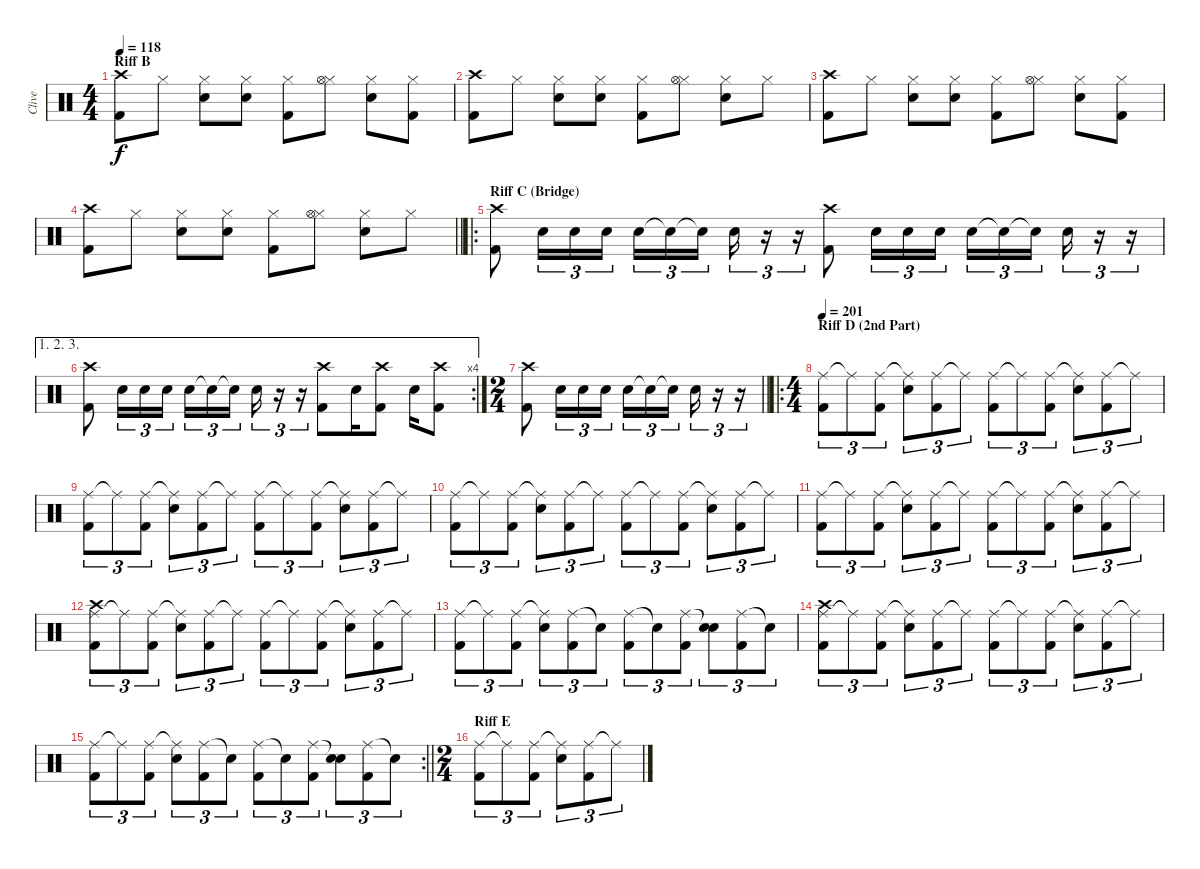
\track ("Clive" "Clive") {instrument percussion}
\staff {score}
\articulation defaults
\ts (4 4)
\section ("" "Riff B")
\tempo 118
\clef neutral
\ks c
("Crash high (hit)" "Kick (hit) 2").8{dy f} "Hi-Hat (closed)".8 ("Hi-Hat (closed)" "Snare (hit) 2").8 ("Hi-Hat (closed)" "Snare (hit) 2").8 ("Hi-Hat (closed)" "Kick (hit) 2").8 ("Hi-Hat (closed)" "Hi-Hat (open)").8 ("Hi-Hat (closed)" "Snare (hit) 2").8 ("Hi-Hat (closed)" "Kick (hit) 2").8 |
("Crash high (hit)" "Kick (hit) 2").8 "Hi-Hat (closed)".8 ("Hi-Hat (closed)" "Snare (hit) 2").8 ("Hi-Hat (closed)" "Snare (hit) 2").8 ("Hi-Hat (closed)" "Kick (hit) 2").8 ("Hi-Hat (closed)" "Hi-Hat (open)").8 ("Hi-Hat (closed)" "Snare (hit) 2").8 "Hi-Hat (closed)".8 |
("Crash high (hit)" "Kick (hit) 2").8 "Hi-Hat (closed)".8 ("Hi-Hat (closed)" "Snare (hit) 2").8 ("Hi-Hat (closed)" "Snare (hit) 2").8 ("Hi-Hat (closed)" "Kick (hit) 2").8 ("Hi-Hat (closed)" "Hi-Hat (open)").8 ("Hi-Hat (closed)" "Snare (hit) 2").8 ("Hi-Hat (closed)" "Kick (hit) 2").8 |
\barLineRight lightlight
("Crash high (hit)" "Kick (hit) 2").8 "Hi-Hat (closed)".8 ("Hi-Hat (closed)" "Snare (hit) 2").8 ("Hi-Hat (closed)" "Snare (hit) 2").8 ("Hi-Hat (closed)" "Kick (hit) 2").8 ("Hi-Hat (closed)" "Hi-Hat (open)").8 ("Hi-Hat (closed)" "Snare (hit) 2").8 "Hi-Hat (closed)".8 |
\ro
\section ("" "Riff C (Bridge)")
("Crash high (hit)" "Kick (hit) 2").8 "Snare (hit) 2".16{tu (3 2)} "Snare (hit) 2".16{tu (3 2)} "Snare (hit) 2".16{tu (3 2)} "Snare (hit) 2".16{tu (3 2)} "Snare (hit)"{t}.16{tu (3 2)} "Snare (hit) 2"{t}.16{tu (3 2) beam splitsecondary} "Snare (hit) 2".16{tu (3 2)} r.16{tu (3 2)} r.16{tu (3 2)} ("Crash high (hit)" "Kick (hit) 2").8 "Snare (hit) 2".16{tu (3 2)} "Snare (hit) 2".16{tu (3 2)} "Snare (hit) 2".16{tu (3 2)} "Snare (hit) 2".16{tu (3 2)} "Snare (hit)"{t}.16{tu (3 2)} "Snare (hit)"{t}.16{tu (3 2) beam splitsecondary} "Snare (hit) 2".16{tu (3 2)} r.16{tu (3 2)} r.16{tu (3 2)} |
\ae (1 2 3)
\rc 4
("Crash high (hit)" "Kick (hit) 2").8 "Snare (hit) 2".16{tu (3 2)} "Snare (hit) 2".16{tu (3 2)} "Snare (hit) 2".16{tu (3 2)} "Snare (hit) 2".16{tu (3 2)} "Snare (hit)"{t}.16{tu (3 2)} "Snare (hit) 2"{t}.16{tu (3 2) beam splitsecondary} "Snare (hit) 2".16{tu (3 2)} r.16{tu (3 2)} r.16{tu (3 2)} ("Crash high (hit)" "Kick (hit) 2").8 "Snare (hit) 2".16 ("Crash high (hit)" "Kick (hit) 2").8 "Snare (hit) 2".16 ("Crash high (hit)" "Kick (hit) 2").8 |
\ts (2 4)
\barLineRight lightlight
("Crash high (hit)" "Kick (hit) 2").8 "Snare (hit) 2".16{tu (3 2)} "Snare (hit) 2".16{tu (3 2)} "Snare (hit) 2".16{tu (3 2)} "Snare (hit) 2".16{tu (3 2)} "Snare (hit)"{t}.16{tu (3 2)} "Snare (hit) 2"{t}.16{tu (3 2) beam splitsecondary} "Snare (hit) 2".16{tu (3 2)} r.16{tu (3 2)} r.16{tu (3 2)} |
\ro
\ts (4 4)
\section ("" "Riff D (2nd Part)")
\tempo 201
("Ride (middle)" "Kick (hit) 2").8{tu (3 2)} "Ride (middle)"{t}.8{tu (3 2)} ("Ride (middle)" "Kick (hit) 2").8{tu (3 2)} ("Ride (middle)"{t} "Snare (hit) 2").8{tu (3 2)} ("Ride (middle)" "Kick (hit) 2").8{tu (3 2)} "Ride (middle)"{t}.8{tu (3 2)} ("Ride (middle)" "Kick (hit) 2").8{tu (3 2)} "Ride (middle)"{t}.8{tu (3 2)} ("Ride (middle)" "Kick (hit) 2").8{tu (3 2)} ("Ride (middle)"{t} "Snare (hit) 2").8{tu (3 2)} ("Ride (middle)" "Kick (hit) 2").8{tu (3 2)} "Ride (middle)"{t}.8{tu (3 2)} |
("Ride (middle)" "Kick (hit) 2").8{tu (3 2)} "Ride (middle)"{t}.8{tu (3 2)} ("Ride (middle)" "Kick (hit) 2").8{tu (3 2)} ("Ride (middle)"{t} "Snare (hit) 2").8{tu (3 2)} ("Ride (middle)" "Kick (hit) 2").8{tu (3 2)} "Ride (middle)"{t}.8{tu (3 2)} ("Ride (middle)" "Kick (hit) 2").8{tu (3 2)} "Ride (middle)"{t}.8{tu (3 2)} ("Ride (middle)" "Kick (hit) 2").8{tu (3 2)} ("Ride (middle)"{t} "Snare (hit) 2").8{tu (3 2)} ("Ride (middle)" "Kick (hit) 2").8{tu (3 2)} "Ride (middle)"{t}.8{tu (3 2)} |
("Ride (middle)" "Kick (hit) 2").8{tu (3 2)} "Ride (middle)"{t}.8{tu (3 2)} ("Ride (middle)" "Kick (hit) 2").8{tu (3 2)} ("Ride (middle)"{t} "Snare (hit) 2").8{tu (3 2)} ("Ride (middle)" "Kick (hit) 2").8{tu (3 2)} "Ride (middle)"{t}.8{tu (3 2)} ("Ride (middle)" "Kick (hit) 2").8{tu (3 2)} "Ride (middle)"{t}.8{tu (3 2)} ("Ride (middle)" "Kick (hit) 2").8{tu (3 2)} ("Ride (middle)"{t} "Snare (hit) 2").8{tu (3 2)} ("Ride (middle)" "Kick (hit) 2").8{tu (3 2)} "Ride (middle)"{t}.8{tu (3 2)} |
("Ride (middle)" "Kick (hit) 2").8{tu (3 2)} "Ride (middle)"{t}.8{tu (3 2)} ("Ride (middle)" "Kick (hit) 2").8{tu (3 2)} ("Ride (middle)"{t} "Snare (hit) 2").8{tu (3 2)} ("Ride (middle)" "Kick (hit) 2").8{tu (3 2)} "Ride (middle)"{t}.8{tu (3 2)} ("Ride (middle)" "Kick (hit) 2").8{tu (3 2)} "Ride (middle)"{t}.8{tu (3 2)} ("Ride (middle)" "Kick (hit) 2").8{tu (3 2)} ("Ride (middle)"{t} "Snare (hit) 2").8{tu (3 2)} ("Ride (middle)" "Kick (hit) 2").8{tu (3 2)} "Ride (middle)"{t}.8{tu (3 2)} |
("Ride (middle)" "Kick (hit) 2" "Crash high (hit)").8{tu (3 2)} "Ride (middle)"{t}.8{tu (3 2)} ("Ride (middle)" "Kick (hit) 2").8{tu (3 2)} ("Ride (middle)"{t} "Snare (hit) 2").8{tu (3 2)} ("Ride (middle)" "Kick (hit) 2").8{tu (3 2)} "Ride (middle)"{t}.8{tu (3 2)} ("Ride (middle)" "Kick (hit) 2").8{tu (3 2)} "Ride (middle)"{t}.8{tu (3 2)} ("Ride (middle)" "Kick (hit) 2").8{tu (3 2)} ("Ride (middle)"{t} "Snare (hit) 2").8{tu (3 2)} ("Ride (middle)" "Kick (hit) 2").8{tu (3 2)} "Ride (middle)"{t}.8{tu (3 2)} |
("Ride (middle)" "Kick (hit) 2").8{tu (3 2)} "Ride (middle)"{t}.8{tu (3 2)} ("Ride (middle)" "Kick (hit) 2").8{tu (3 2)} ("Ride (middle)"{t} "Snare (hit) 2").8{tu (3 2)} ("Ride (middle)" "Kick (hit) 2").8{tu (3 2)} "Snare (hit)"{t}.8{tu (3 2)} ("Ride (middle)" "Kick (hit) 2").8{tu (3 2)} "Snare (hit)"{t}.8{tu (3 2)} ("Ride (middle)" "Kick (hit) 2").8{tu (3 2)} ("Snare (hit)"{t} "Snare (hit) 2").8{tu (3 2)} ("Ride (middle)" "Kick (hit) 2").8{tu (3 2)} "Snare (hit)"{t}.8{tu (3 2)} |
("Ride (middle)" "Kick (hit) 2" "Crash high (hit)").8{tu (3 2)} "Ride (middle)"{t}.8{tu (3 2)} ("Ride (middle)" "Kick (hit) 2").8{tu (3 2)} ("Ride (middle)"{t} "Snare (hit) 2").8{tu (3 2)} ("Ride (middle)" "Kick (hit) 2").8{tu (3 2)} "Ride (middle)"{t}.8{tu (3 2)} ("Ride (middle)" "Kick (hit) 2").8{tu (3 2)} "Ride (middle)"{t}.8{tu (3 2)} ("Ride (middle)" "Kick (hit) 2").8{tu (3 2)} ("Ride (middle)"{t} "Snare (hit) 2").8{tu (3 2)} ("Ride (middle)" "Kick (hit) 2").8{tu (3 2)} "Ride (middle)"{t}.8{tu (3 2)} |
\rc 2
\barLineRight lightlight
("Ride (middle)" "Kick (hit) 2").8{tu (3 2)} "Ride (middle)"{t}.8{tu (3 2)} ("Ride (middle)" "Kick (hit) 2").8{tu (3 2)} ("Ride (middle)"{t} "Snare (hit) 2").8{tu (3 2)} ("Ride (middle)" "Kick (hit) 2").8{tu (3 2)} "Snare (hit)"{t}.8{tu (3 2)} ("Ride (middle)" "Kick (hit) 2").8{tu (3 2)} "Snare (hit)"{t}.8{tu (3 2)} ("Ride (middle)" "Kick (hit) 2").8{tu (3 2)} ("Snare (hit)"{t} "Snare (hit) 2").8{tu (3 2)} ("Ride (middle)" "Kick (hit) 2").8{tu (3 2)} "Snare (hit)"{t}.8{tu (3 2)} |
\ts (2 4)
\section ("" "Riff E")
("Ride (middle)" "Kick (hit) 2").8{tu (3 2)} "Ride (middle)"{t}.8{tu (3 2)} ("Ride (middle)" "Kick (hit) 2").8{tu (3 2)} ("Ride (middle)"{t} "Snare (hit) 2").8{tu (3 2)} ("Ride (middle)" "Kick (hit) 2").8{tu (3 2)} "Ride (middle)"{t}.8{tu (3 2)}
